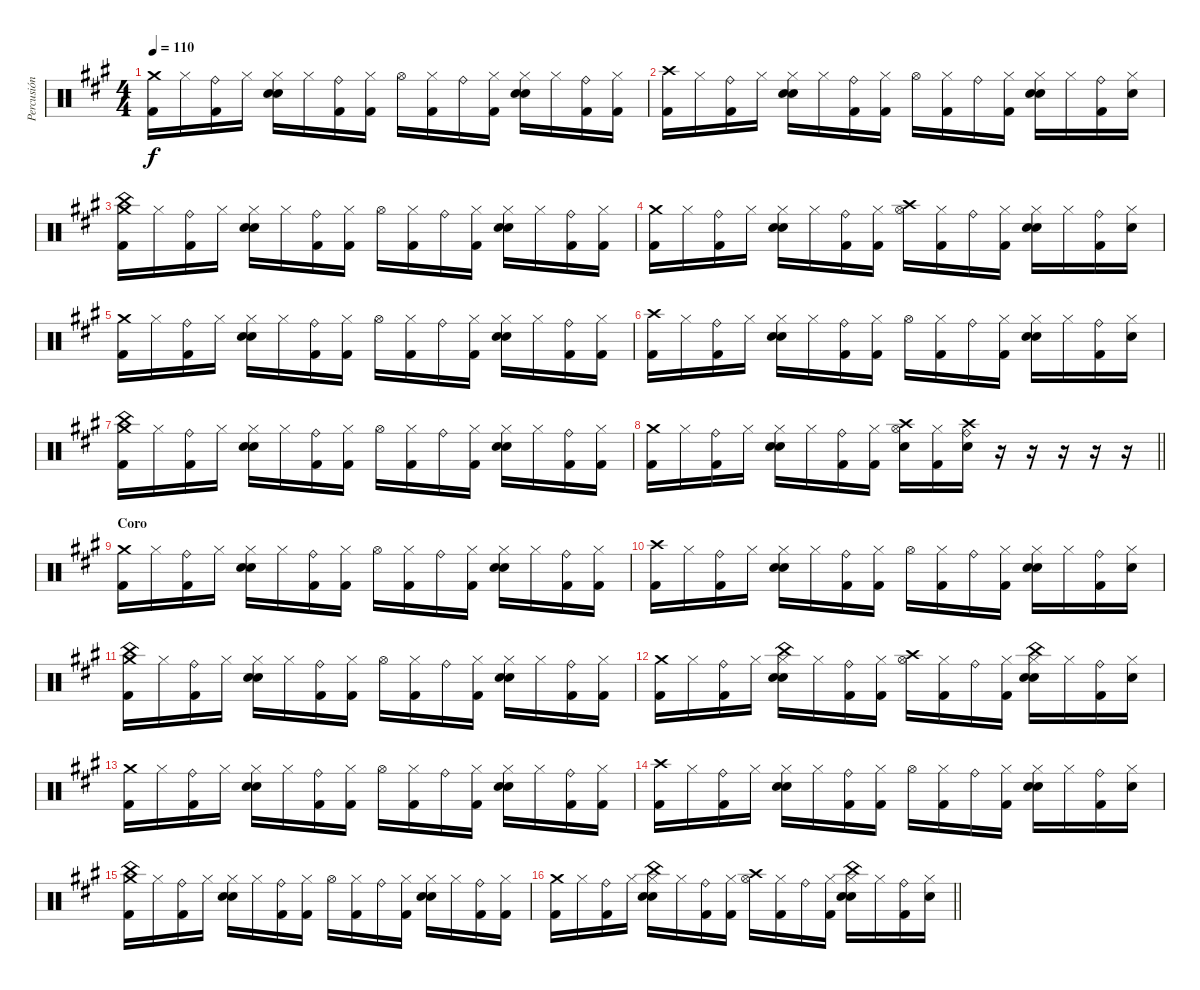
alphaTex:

\track ("Percusión" "Percusión") {instrument percussion}
\staff {score}
\articulation defaults
\ts (4 4)
\tempo 110
\clef neutral
\ks a
("Crash medium (hit)" "Kick (hit) 2").16{dy f} "Hi-Hat (closed)".16 ("Ride (bell)" "Kick (hit) 2").16 "Hi-Hat (closed)".16 ("Hi-Hat (closed)" "Hand Clap (hit)" "Electric Snare (hit)").16 "Hi-Hat (closed)".16 ("Ride (bell)" "Kick (hit) 2").16 ("Hi-Hat (closed)" "Kick (hit) 2").16 "Hi-Hat (open)".16 ("Hi-Hat (closed)" "Kick (hit) 2").16 "Ride (bell)".16 ("Hi-Hat (closed)" "Kick (hit) 2").16 ("Hi-Hat (closed)" "Hand Clap (hit)" "Electric Snare (hit)").16 "Hi-Hat (closed)".16 ("Ride (bell)" "Kick (hit) 2").16 ("Hi-Hat (closed)" "Kick (hit) 2").16 |
("Crash high (hit)" "Kick (hit) 2").16 "Hi-Hat (closed)".16 ("Ride (bell)" "Kick (hit) 2").16 "Hi-Hat (closed)".16 ("Hi-Hat (closed)" "Hand Clap (hit)" "Electric Snare (hit)").16 "Hi-Hat (closed)".16 ("Ride (bell)" "Kick (hit) 2").16 ("Hi-Hat (closed)" "Kick (hit) 2").16 "Hi-Hat (open)".16 ("Hi-Hat (closed)" "Kick (hit) 2").16 "Ride (bell)".16 ("Hi-Hat (closed)" "Kick (hit) 2").16 ("Hi-Hat (closed)" "Hand Clap (hit)" "Electric Snare (hit)").16 "Hi-Hat (closed)".16 ("Ride (bell)" "Kick (hit) 2").16 ("Hi-Hat (closed)" "Hand Clap (hit)").16 |
("Crash medium (hit)" "China (hit)" "Kick (hit) 2").16 "Hi-Hat (closed)".16 ("Ride (bell)" "Kick (hit) 2").16 "Hi-Hat (closed)".16 ("Hi-Hat (closed)" "Hand Clap (hit)" "Electric Snare (hit)").16 "Hi-Hat (closed)".16 ("Ride (bell)" "Kick (hit) 2").16 ("Hi-Hat (closed)" "Kick (hit) 2").16 "Hi-Hat (open)".16 ("Hi-Hat (closed)" "Kick (hit) 2").16 "Ride (bell)".16 ("Hi-Hat (closed)" "Kick (hit) 2").16 ("Hi-Hat (closed)" "Hand Clap (hit)" "Electric Snare (hit)").16 "Hi-Hat (closed)".16 ("Ride (bell)" "Kick (hit) 2").16 ("Hi-Hat (closed)" "Kick (hit) 2").16 |
("Crash medium (hit)" "Kick (hit) 2").16 "Hi-Hat (closed)".16 ("Ride (bell)" "Kick (hit) 2").16 "Hi-Hat (closed)".16 ("Hi-Hat (closed)" "Hand Clap (hit)" "Electric Snare (hit)").16 "Hi-Hat (closed)".16 ("Ride (bell)" "Kick (hit) 2").16 ("Hi-Hat (closed)" "Kick (hit) 2").16 ("Crash high (hit)" "Hi-Hat (open)").16 ("Hi-Hat (closed)" "Kick (hit) 2").16 "Ride (bell)".16 ("Hi-Hat (closed)" "Kick (hit) 2").16 ("Hi-Hat (closed)" "Hand Clap (hit)" "Electric Snare (hit)").16 "Hi-Hat (closed)".16 ("Ride (bell)" "Kick (hit) 2").16 ("Hi-Hat (closed)" "Hand Clap (hit)").16 |
("Crash medium (hit)" "Kick (hit) 2").16 "Hi-Hat (closed)".16 ("Ride (bell)" "Kick (hit) 2").16 "Hi-Hat (closed)".16 ("Hi-Hat (closed)" "Hand Clap (hit)" "Electric Snare (hit)").16 "Hi-Hat (closed)".16 ("Ride (bell)" "Kick (hit) 2").16 ("Hi-Hat (closed)" "Kick (hit) 2").16 "Hi-Hat (open)".16 ("Hi-Hat (closed)" "Kick (hit) 2").16 "Ride (bell)".16 ("Hi-Hat (closed)" "Kick (hit) 2").16 ("Hi-Hat (closed)" "Hand Clap (hit)" "Electric Snare (hit)").16 "Hi-Hat (closed)".16 ("Ride (bell)" "Kick (hit) 2").16 ("Hi-Hat (closed)" "Kick (hit) 2").16 |
("Crash high (hit)" "Kick (hit) 2").16 "Hi-Hat (closed)".16 ("Ride (bell)" "Kick (hit) 2").16 "Hi-Hat (closed)".16 ("Hi-Hat (closed)" "Hand Clap (hit)" "Electric Snare (hit)").16 "Hi-Hat (closed)".16 ("Ride (bell)" "Kick (hit) 2").16 ("Hi-Hat (closed)" "Kick (hit) 2").16 "Hi-Hat (open)".16 ("Hi-Hat (closed)" "Kick (hit) 2").16 "Ride (bell)".16 ("Hi-Hat (closed)" "Kick (hit) 2").16 ("Hi-Hat (closed)" "Hand Clap (hit)" "Electric Snare (hit)").16 "Hi-Hat (closed)".16 ("Ride (bell)" "Kick (hit) 2").16 ("Hi-Hat (closed)" "Hand Clap (hit)").16 |
("Crash medium (hit)" "China (hit)" "Kick (hit) 2").16 "Hi-Hat (closed)".16 ("Ride (bell)" "Kick (hit) 2").16 "Hi-Hat (closed)".16 ("Hi-Hat (closed)" "Hand Clap (hit)" "Electric Snare (hit)").16 "Hi-Hat (closed)".16 ("Ride (bell)" "Kick (hit) 2").16 ("Hi-Hat (closed)" "Kick (hit) 2").16 "Hi-Hat (open)".16 ("Hi-Hat (closed)" "Kick (hit) 2").16 "Ride (bell)".16 ("Hi-Hat (closed)" "Kick (hit) 2").16 ("Hi-Hat (closed)" "Hand Clap (hit)" "Electric Snare (hit)").16 "Hi-Hat (closed)".16 ("Ride (bell)" "Kick (hit) 2").16 ("Hi-Hat (closed)" "Kick (hit) 2").16 |
\barLineRight lightlight
("Crash medium (hit)" "Kick (hit) 2").16 "Hi-Hat (closed)".16 ("Ride (bell)" "Kick (hit) 2").16 "Hi-Hat (closed)".16 ("Hi-Hat (closed)" "Hand Clap (hit)" "Electric Snare (hit)").16 "Hi-Hat (closed)".16 ("Ride (bell)" "Kick (hit) 2").16 ("Hi-Hat (closed)" "Kick (hit) 2").16 ("Crash high (hit)" "Hi-Hat (open)" "Hand Clap (hit)").16 ("Hi-Hat (closed)" "Kick (hit) 2").16 ("Crash high (hit)" "Ride (bell)" "Hand Clap (hit)").16 r.16 r.16 r.16 r.16 r.16 |
\section ("" "Coro")
("Crash medium (hit)" "Kick (hit) 2").16 "Hi-Hat (closed)".16 ("Ride (bell)" "Kick (hit) 2").16 "Hi-Hat (closed)".16 ("Hi-Hat (closed)" "Hand Clap (hit)" "Electric Snare (hit)").16 "Hi-Hat (closed)".16 ("Ride (bell)" "Kick (hit) 2").16 ("Hi-Hat (closed)" "Kick (hit) 2").16 "Hi-Hat (open)".16 ("Hi-Hat (closed)" "Kick (hit) 2").16 "Ride (bell)".16 ("Hi-Hat (closed)" "Kick (hit) 2").16 ("Hi-Hat (closed)" "Hand Clap (hit)" "Electric Snare (hit)").16 "Hi-Hat (closed)".16 ("Ride (bell)" "Kick (hit) 2").16 ("Hi-Hat (closed)" "Kick (hit) 2").16 |
("Crash high (hit)" "Kick (hit) 2").16 "Hi-Hat (closed)".16 ("Ride (bell)" "Kick (hit) 2").16 "Hi-Hat (closed)".16 ("Hi-Hat (closed)" "Hand Clap (hit)" "Electric Snare (hit)").16 "Hi-Hat (closed)".16 ("Ride (bell)" "Kick (hit) 2").16 ("Hi-Hat (closed)" "Kick (hit) 2").16 "Hi-Hat (open)".16 ("Hi-Hat (closed)" "Kick (hit) 2").16 "Ride (bell)".16 ("Hi-Hat (closed)" "Kick (hit) 2").16 ("Hi-Hat (closed)" "Hand Clap (hit)" "Electric Snare (hit)").16 "Hi-Hat (closed)".16 ("Ride (bell)" "Kick (hit) 2").16 ("Hi-Hat (closed)" "Hand Clap (hit)").16 |
("Crash medium (hit)" "China (hit)" "Kick (hit) 2").16 "Hi-Hat (closed)".16 ("Ride (bell)" "Kick (hit) 2").16 "Hi-Hat (closed)".16 ("Hi-Hat (closed)" "Hand Clap (hit)" "Electric Snare (hit)").16 "Hi-Hat (closed)".16 ("Ride (bell)" "Kick (hit) 2").16 ("Hi-Hat (closed)" "Kick (hit) 2").16 "Hi-Hat (open)".16 ("Hi-Hat (closed)" "Kick (hit) 2").16 "Ride (bell)".16 ("Hi-Hat (closed)" "Kick (hit) 2").16 ("Hi-Hat (closed)" "Hand Clap (hit)" "Electric Snare (hit)").16 "Hi-Hat (closed)".16 ("Ride (bell)" "Kick (hit) 2").16 ("Hi-Hat (closed)" "Kick (hit) 2").16 |
("Crash medium (hit)" "Kick (hit) 2").16 "Hi-Hat (closed)".16 ("Ride (bell)" "Kick (hit) 2").16 "Hi-Hat (closed)".16 ("China (hit)" "Hi-Hat (closed)" "Hand Clap (hit)" "Electric Snare (hit)").16 "Hi-Hat (closed)".16 ("Ride (bell)" "Kick (hit) 2").16 ("Hi-Hat (closed)" "Kick (hit) 2").16 ("Crash high (hit)" "Hi-Hat (open)").16 ("Hi-Hat (closed)" "Kick (hit) 2").16 "Ride (bell)".16 ("Hi-Hat (closed)" "Kick (hit) 2").16 ("China (hit)" "Hi-Hat (closed)" "Hand Clap (hit)" "Electric Snare (hit)").16 "Hi-Hat (closed)".16 ("Ride (bell)" "Kick (hit) 2").16 ("Hi-Hat (closed)" "Hand Clap (hit)").16 |
("Crash medium (hit)" "Kick (hit) 2").16 "Hi-Hat (closed)".16 ("Ride (bell)" "Kick (hit) 2").16 "Hi-Hat (closed)".16 ("Hi-Hat (closed)" "Hand Clap (hit)" "Electric Snare (hit)").16 "Hi-Hat (closed)".16 ("Ride (bell)" "Kick (hit) 2").16 ("Hi-Hat (closed)" "Kick (hit) 2").16 "Hi-Hat (open)".16 ("Hi-Hat (closed)" "Kick (hit) 2").16 "Ride (bell)".16 ("Hi-Hat (closed)" "Kick (hit) 2").16 ("Hi-Hat (closed)" "Hand Clap (hit)" "Electric Snare (hit)").16 "Hi-Hat (closed)".16 ("Ride (bell)" "Kick (hit) 2").16 ("Hi-Hat (closed)" "Kick (hit) 2").16 |
("Crash high (hit)" "Kick (hit) 2").16 "Hi-Hat (closed)".16 ("Ride (bell)" "Kick (hit) 2").16 "Hi-Hat (closed)".16 ("Hi-Hat (closed)" "Hand Clap (hit)" "Electric Snare (hit)").16 "Hi-Hat (closed)".16 ("Ride (bell)" "Kick (hit) 2").16 ("Hi-Hat (closed)" "Kick (hit) 2").16 "Hi-Hat (open)".16 ("Hi-Hat (closed)" "Kick (hit) 2").16 "Ride (bell)".16 ("Hi-Hat (closed)" "Kick (hit) 2").16 ("Hi-Hat (closed)" "Hand Clap (hit)" "Electric Snare (hit)").16 "Hi-Hat (closed)".16 ("Ride (bell)" "Kick (hit) 2").16 ("Hi-Hat (closed)" "Hand Clap (hit)").16 |
("Crash medium (hit)" "China (hit)" "Kick (hit) 2").16 "Hi-Hat (closed)".16 ("Ride (bell)" "Kick (hit) 2").16 "Hi-Hat (closed)".16 ("Hi-Hat (closed)" "Hand Clap (hit)" "Electric Snare (hit)").16 "Hi-Hat (closed)".16 ("Ride (bell)" "Kick (hit) 2").16 ("Hi-Hat (closed)" "Kick (hit) 2").16 "Hi-Hat (open)".16 ("Hi-Hat (closed)" "Kick (hit) 2").16 "Ride (bell)".16 ("Hi-Hat (closed)" "Kick (hit) 2").16 ("Hi-Hat (closed)" "Hand Clap (hit)" "Electric Snare (hit)").16 "Hi-Hat (closed)".16 ("Ride (bell)" "Kick (hit) 2").16 ("Hi-Hat (closed)" "Kick (hit) 2").16 |
\barLineRight lightlight
("Crash medium (hit)" "Kick (hit) 2").16 "Hi-Hat (closed)".16 ("Ride (bell)" "Kick (hit) 2").16 "Hi-Hat (closed)".16 ("China (hit)" "Hi-Hat (closed)" "Hand Clap (hit)" "Electric Snare (hit)").16 "Hi-Hat (closed)".16 ("Ride (bell)" "Kick (hit) 2").16 ("Hi-Hat (closed)" "Kick (hit) 2").16 ("Crash high (hit)" "Hi-Hat (open)").16 ("Hi-Hat (closed)" "Kick (hit) 2").16 "Ride (bell)".16 ("Hi-Hat (closed)" "Kick (hit) 2").16 ("China (hit)" "Hi-Hat (closed)" "Hand Clap (hit)" "Electric Snare (hit)").16 "Hi-Hat (closed)".16 ("Ride (bell)" "Kick (hit) 2").16 ("Hi-Hat (closed)" "Hand Clap (hit)").16
